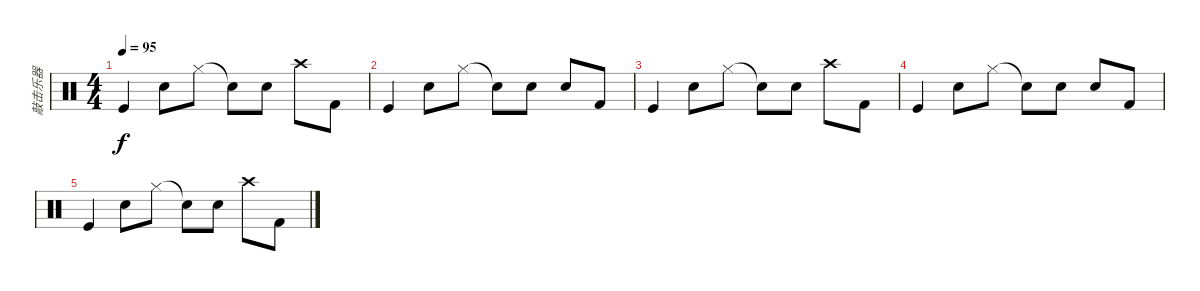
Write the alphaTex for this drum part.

\track ("敲击乐器" "敲击乐器") {instrument percussion}
\staff {score}
\articulation defaults
\ts (4 4)
\tempo 95
\clef neutral
\ks c "Kick (hit)".4{dy f} "Hand Clap (hit)".8 "Hi-Hat (closed)".8 "Snare (hit)"{t}.8 "Hand Clap (hit)".8 "Crash high (hit)".8 "Kick (hit) 2".8
|
"Kick (hit)".4 "Hand Clap (hit)".8 "Hi-Hat (closed)".8 "Snare (hit)"{t}.8 "Hand Clap (hit)".8 "Snare (hit) 2".8 "Kick (hit) 2".8 |
"Kick (hit)".4 "Hand Clap (hit)".8 "Hi-Hat (closed)".8 "Snare (hit)"{t}.8 "Hand Clap (hit)".8 "Crash high (hit)".8 "Kick (hit) 2".8 |
"Kick (hit)".4 "Hand Clap (hit)".8 "Hi-Hat (closed)".8 "Snare (hit)"{t}.8 "Hand Clap (hit)".8 "Snare (hit) 2".8 "Kick (hit) 2".8 |
"Kick (hit)".4 "Hand Clap (hit)".8 "Hi-Hat (closed)".8 "Snare (hit)"{t}.8 "Hand Clap (hit)".8 "Crash high (hit)".8 "Kick (hit) 2".8
